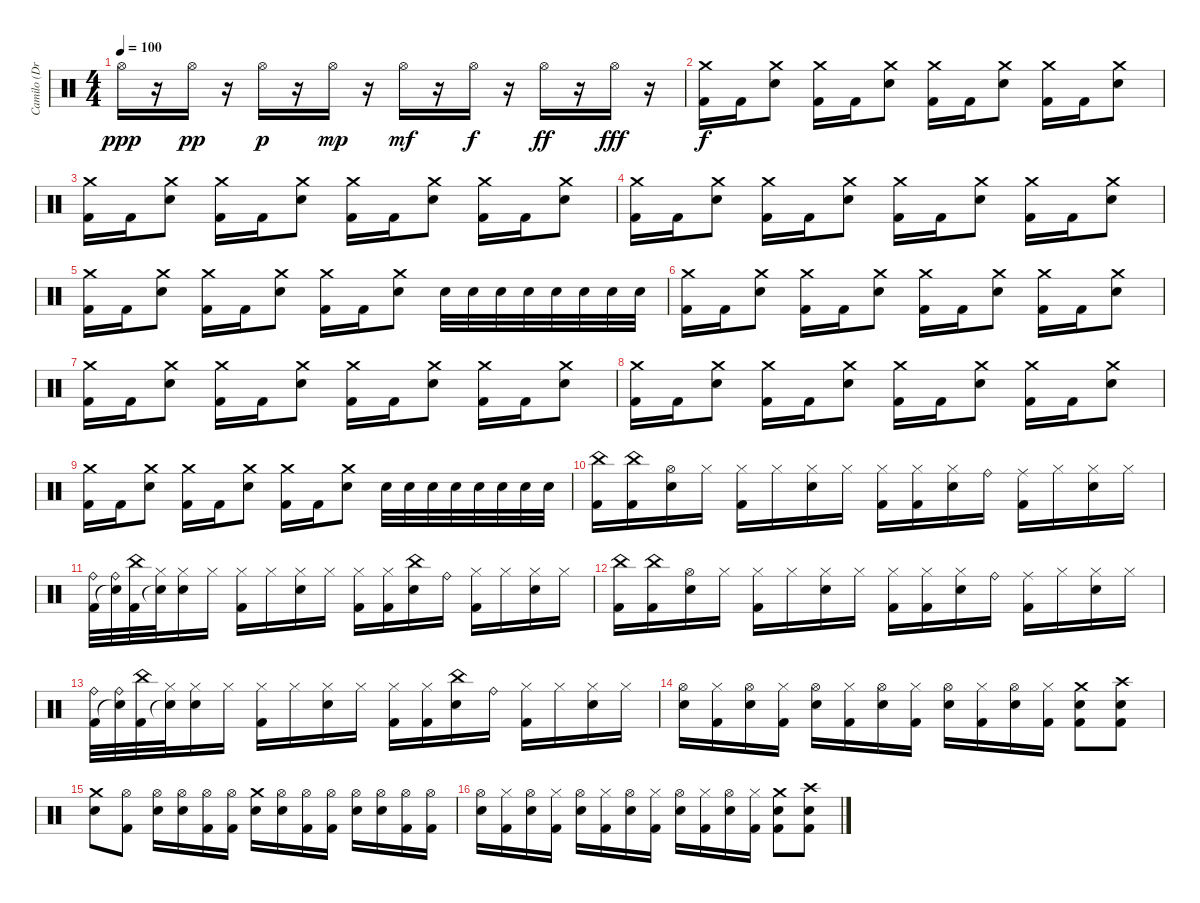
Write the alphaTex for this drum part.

\track ("Camilo (Drums)" "Camilo (Dr") {instrument percussion}
\staff {score}
\articulation defaults
\ts (4 4)
\tempo 100
\clef neutral
\ks c "Hi-Hat (open)".16{dy ppp}
r.16 "Hi-Hat (open)".16{dy pp} r.16 "Hi-Hat (open)".16{dy p} r.16 "Hi-Hat (open)".16{dy mp} r.16 "Hi-Hat (open)".16{dy mf} r.16 "Hi-Hat (open)".16{dy f} r.16 "Hi-Hat (open)".16{dy ff} r.16 "Hi-Hat (open)".16{dy fff} r.16 |
("Crash medium (hit)" "Kick (hit) 2").16{dy f} "Kick (hit) 2".16 ("Crash medium (hit)" "Electric Snare (hit)").8 ("Crash medium (hit)" "Kick (hit) 2").16 "Kick (hit) 2".16 ("Crash medium (hit)" "Electric Snare (hit)").8 ("Crash medium (hit)" "Kick (hit) 2").16 "Kick (hit) 2".16 ("Crash medium (hit)" "Electric Snare (hit)").8 ("Crash medium (hit)" "Kick (hit) 2").16 "Kick (hit) 2".16 ("Crash medium (hit)" "Electric Snare (hit)").8 |
("Crash medium (hit)" "Kick (hit) 2").16 "Kick (hit) 2".16 ("Crash medium (hit)" "Electric Snare (hit)").8 ("Crash medium (hit)" "Kick (hit) 2").16 "Kick (hit) 2".16 ("Crash medium (hit)" "Electric Snare (hit)").8 ("Crash medium (hit)" "Kick (hit) 2").16 "Kick (hit) 2".16 ("Crash medium (hit)" "Electric Snare (hit)").8 ("Crash medium (hit)" "Kick (hit) 2").16 "Kick (hit) 2".16 ("Crash medium (hit)" "Electric Snare (hit)").8 |
("Crash medium (hit)" "Kick (hit) 2").16 "Kick (hit) 2".16 ("Crash medium (hit)" "Electric Snare (hit)").8 ("Crash medium (hit)" "Kick (hit) 2").16 "Kick (hit) 2".16 ("Crash medium (hit)" "Electric Snare (hit)").8 ("Crash medium (hit)" "Kick (hit) 2").16 "Kick (hit) 2".16 ("Crash medium (hit)" "Electric Snare (hit)").8 ("Crash medium (hit)" "Kick (hit) 2").16 "Kick (hit) 2".16 ("Crash medium (hit)" "Electric Snare (hit)").8 |
("Crash medium (hit)" "Kick (hit) 2").16 "Kick (hit) 2".16 ("Crash medium (hit)" "Electric Snare (hit)").8 ("Crash medium (hit)" "Kick (hit) 2").16 "Kick (hit) 2".16 ("Crash medium (hit)" "Electric Snare (hit)").8 ("Crash medium (hit)" "Kick (hit) 2").16 "Kick (hit) 2".16 ("Crash medium (hit)" "Electric Snare (hit)").8 "Electric Snare (hit)".32 "Electric Snare (hit)".32 "Electric Snare (hit)".32 "Electric Snare (hit)".32 "Electric Snare (hit)".32 "Electric Snare (hit)".32 "Electric Snare (hit)".32 "Electric Snare (hit)".32 |
("Crash medium (hit)" "Kick (hit) 2").16 "Kick (hit) 2".16 ("Crash medium (hit)" "Electric Snare (hit)").8 ("Crash medium (hit)" "Kick (hit) 2").16 "Kick (hit) 2".16 ("Crash medium (hit)" "Electric Snare (hit)").8 ("Crash medium (hit)" "Kick (hit) 2").16 "Kick (hit) 2".16 ("Crash medium (hit)" "Electric Snare (hit)").8 ("Crash medium (hit)" "Kick (hit) 2").16 "Kick (hit) 2".16 ("Crash medium (hit)" "Electric Snare (hit)").8 |
("Crash medium (hit)" "Kick (hit) 2").16 "Kick (hit) 2".16 ("Crash medium (hit)" "Electric Snare (hit)").8 ("Crash medium (hit)" "Kick (hit) 2").16 "Kick (hit) 2".16 ("Crash medium (hit)" "Electric Snare (hit)").8 ("Crash medium (hit)" "Kick (hit) 2").16 "Kick (hit) 2".16 ("Crash medium (hit)" "Electric Snare (hit)").8 ("Crash medium (hit)" "Kick (hit) 2").16 "Kick (hit) 2".16 ("Crash medium (hit)" "Electric Snare (hit)").8 |
("Crash medium (hit)" "Kick (hit) 2").16 "Kick (hit) 2".16 ("Crash medium (hit)" "Electric Snare (hit)").8 ("Crash medium (hit)" "Kick (hit) 2").16 "Kick (hit) 2".16 ("Crash medium (hit)" "Electric Snare (hit)").8 ("Crash medium (hit)" "Kick (hit) 2").16 "Kick (hit) 2".16 ("Crash medium (hit)" "Electric Snare (hit)").8 ("Crash medium (hit)" "Kick (hit) 2").16 "Kick (hit) 2".16 ("Crash medium (hit)" "Electric Snare (hit)").8 |
("Crash medium (hit)" "Kick (hit) 2").16 "Kick (hit) 2".16 ("Crash medium (hit)" "Electric Snare (hit)").8 ("Crash medium (hit)" "Kick (hit) 2").16 "Kick (hit) 2".16 ("Crash medium (hit)" "Electric Snare (hit)").8 ("Crash medium (hit)" "Kick (hit) 2").16 "Kick (hit) 2".16 ("Crash medium (hit)" "Electric Snare (hit)").8 "Electric Snare (hit)".32 "Electric Snare (hit)".32 "Electric Snare (hit)".32 "Electric Snare (hit)".32 "Electric Snare (hit)".32 "Electric Snare (hit)".32 "Electric Snare (hit)".32 "Electric Snare (hit)".32 |
("China (hit)" "Kick (hit) 2").16 ("China (hit)" "Kick (hit) 2").16 ("Hi-Hat (open)" "Electric Snare (hit)").16 "Hi-Hat (closed)".16 ("Hi-Hat (closed)" "Kick (hit) 2").16 "Hi-Hat (closed)".16 ("Hi-Hat (closed)" "Electric Snare (hit)").16 "Hi-Hat (closed)".16 ("Hi-Hat (closed)" "Kick (hit) 2").16 ("Hi-Hat (closed)" "Kick (hit) 2").16 ("Hi-Hat (closed)" "Electric Snare (hit)").16 "Ride (bell)".16 ("Ride (middle)" "Kick (hit) 2").16 "Hi-Hat (closed)".16 ("Hi-Hat (closed)" "Electric Snare (hit)").16 "Hi-Hat (closed)".16 |
("Ride (bell)" "Kick (hit) 2").32 ("Ride (bell)" "Snare (hit)"{t}).32 ("China (hit)" "Kick (hit) 2").32 ("Hi-Hat (closed)" "Snare (hit)"{t}).32 ("Hi-Hat (closed)" "Electric Snare (hit)").16 "Hi-Hat (closed)".16 ("Hi-Hat (closed)" "Kick (hit) 2").16 "Hi-Hat (closed)".16 ("Hi-Hat (closed)" "Electric Snare (hit)").16 "Hi-Hat (closed)".16 ("Hi-Hat (closed)" "Kick (hit) 2").16 ("Hi-Hat (closed)" "Kick (hit) 2").16 ("China (hit)" "Electric Snare (hit)").16 "Ride (bell)".16 ("Hi-Hat (closed)" "Kick (hit) 2").16 "Hi-Hat (closed)".16 ("Hi-Hat (closed)" "Electric Snare (hit)").16 "Hi-Hat (closed)".16 |
("China (hit)" "Kick (hit) 2").16 ("China (hit)" "Kick (hit) 2").16 ("Hi-Hat (open)" "Electric Snare (hit)").16 "Hi-Hat (closed)".16 ("Hi-Hat (closed)" "Kick (hit) 2").16 "Hi-Hat (closed)".16 ("Hi-Hat (closed)" "Electric Snare (hit)").16 "Hi-Hat (closed)".16 ("Hi-Hat (closed)" "Kick (hit) 2").16 ("Hi-Hat (closed)" "Kick (hit) 2").16 ("Hi-Hat (closed)" "Electric Snare (hit)").16 "Ride (bell)".16 ("Ride (middle)" "Kick (hit) 2").16 "Hi-Hat (closed)".16 ("Hi-Hat (closed)" "Electric Snare (hit)").16 "Hi-Hat (closed)".16 |
("Ride (bell)" "Kick (hit) 2").32 ("Ride (bell)" "Snare (hit)"{t}).32 ("China (hit)" "Kick (hit) 2").32 ("Hi-Hat (closed)" "Snare (hit)"{t}).32 ("Hi-Hat (closed)" "Electric Snare (hit)").16 "Hi-Hat (closed)".16 ("Hi-Hat (closed)" "Kick (hit) 2").16 "Hi-Hat (closed)".16 ("Hi-Hat (closed)" "Electric Snare (hit)").16 "Hi-Hat (closed)".16 ("Hi-Hat (closed)" "Kick (hit) 2").16 ("Hi-Hat (closed)" "Kick (hit) 2").16 ("China (hit)" "Electric Snare (hit)").16 "Ride (bell)".16 ("Hi-Hat (closed)" "Kick (hit) 2").16 "Hi-Hat (closed)".16 ("Hi-Hat (closed)" "Electric Snare (hit)").16 "Hi-Hat (closed)".16 |
("Hi-Hat (open)" "Electric Snare (hit)").16 ("Hi-Hat (closed)" "Kick (hit) 2").16 ("Hi-Hat (open)" "Electric Snare (hit)").16 ("Hi-Hat (closed)" "Kick (hit) 2").16 ("Hi-Hat (open)" "Electric Snare (hit)").16 ("Hi-Hat (closed)" "Kick (hit) 2").16 ("Hi-Hat (open)" "Electric Snare (hit)").16 ("Hi-Hat (closed)" "Kick (hit) 2").16 ("Hi-Hat (open)" "Electric Snare (hit)").16 ("Hi-Hat (closed)" "Kick (hit) 2").16 ("Hi-Hat (open)" "Electric Snare (hit)").16 ("Hi-Hat (closed)" "Kick (hit) 2").16 ("Crash medium (hit)" "Electric Snare (hit)" "Kick (hit) 2").8 ("Crash high (hit)" "Electric Snare (hit)" "Kick (hit) 2").8 |
("Crash medium (hit)" "Electric Snare (hit)").8 ("Hi-Hat (open)" "Kick (hit) 2").8 ("Hi-Hat (open)" "Electric Snare (hit)").16 ("Hi-Hat (open)" "Electric Snare (hit)").16 ("Hi-Hat (open)" "Kick (hit) 2").16 ("Hi-Hat (open)" "Kick (hit) 2").16 ("Crash medium (hit)" "Electric Snare (hit)").16 ("Hi-Hat (open)" "Electric Snare (hit)").16 ("Hi-Hat (open)" "Kick (hit) 2").16 ("Hi-Hat (open)" "Kick (hit) 2").16 ("Hi-Hat (open)" "Electric Snare (hit)").16 ("Hi-Hat (open)" "Electric Snare (hit)").16 ("Hi-Hat (open)" "Kick (hit) 2").16 ("Hi-Hat (open)" "Kick (hit) 2").16 |
("Hi-Hat (open)" "Electric Snare (hit)").16 ("Hi-Hat (closed)" "Kick (hit) 2").16 ("Hi-Hat (open)" "Electric Snare (hit)").16 ("Hi-Hat (closed)" "Kick (hit) 2").16 ("Hi-Hat (open)" "Electric Snare (hit)").16 ("Hi-Hat (closed)" "Kick (hit) 2").16 ("Hi-Hat (open)" "Electric Snare (hit)").16 ("Hi-Hat (closed)" "Kick (hit) 2").16 ("Hi-Hat (open)" "Electric Snare (hit)").16 ("Hi-Hat (closed)" "Kick (hit) 2").16 ("Hi-Hat (open)" "Electric Snare (hit)").16 ("Hi-Hat (closed)" "Kick (hit) 2").16 ("Crash medium (hit)" "Electric Snare (hit)" "Kick (hit) 2").8 ("Crash high (hit)" "Electric Snare (hit)" "Kick (hit) 2").8
